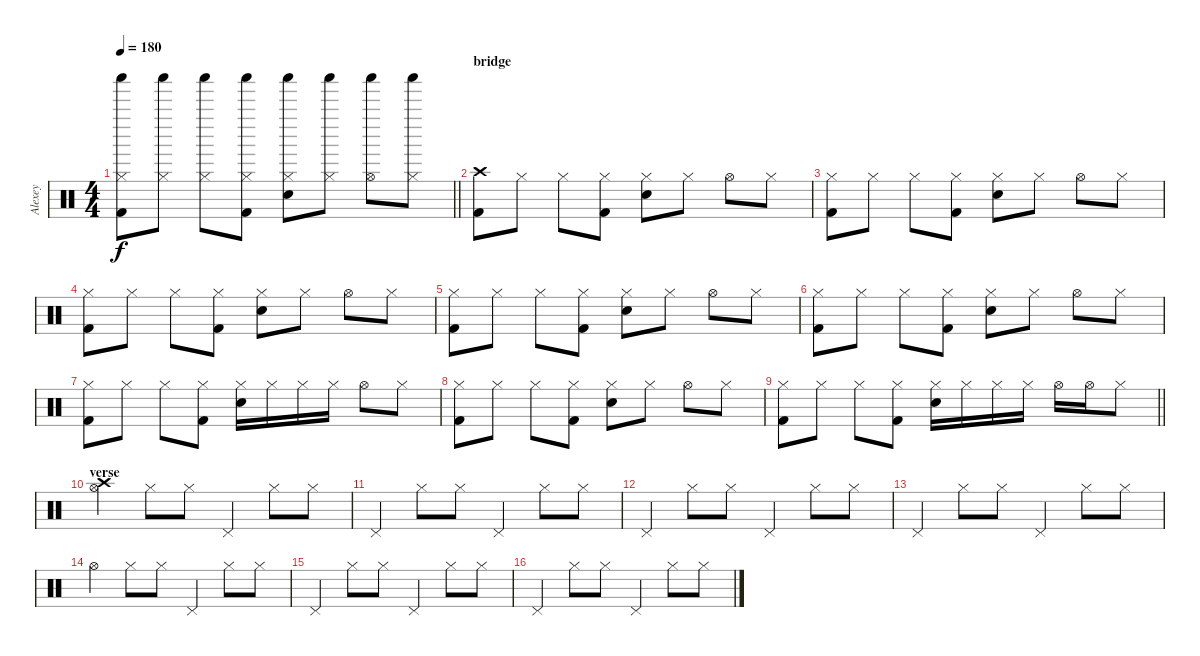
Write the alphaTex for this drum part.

\track ("Alexey" "Alexey") {instrument percussion}
\staff {score}
\articulation defaults
\ts (4 4)
\tempo 180
\clef neutral
\barLineRight lightlight
\ks c
("Hi-Hat (closed)" "Shaker (hit)" "Kick (hit) 2").8{dy f} ("Hi-Hat (closed)" "Shaker (hit)").8 ("Hi-Hat (closed)" "Shaker (hit)").8 ("Hi-Hat (closed)" "Shaker (hit)" "Kick (hit) 2").8 ("Hi-Hat (closed)" "Shaker (hit)" "Snare (hit) 2").8 ("Hi-Hat (closed)" "Shaker (hit)").8 ("Hi-Hat (open)" "Shaker (hit)").8 ("Hi-Hat (closed)" "Shaker (hit)").8 |
\section ("" "bridge")
("Crash high (hit)" "Kick (hit) 2").8 "Hi-Hat (closed)".8 "Hi-Hat (closed)".8 ("Hi-Hat (closed)" "Kick (hit) 2").8 ("Hi-Hat (closed)" "Snare (hit) 2").8 "Hi-Hat (closed)".8 "Hi-Hat (open)".8 "Hi-Hat (closed)".8 |
("Hi-Hat (closed)" "Kick (hit) 2").8 "Hi-Hat (closed)".8 "Hi-Hat (closed)".8 ("Hi-Hat (closed)" "Kick (hit) 2").8 ("Hi-Hat (closed)" "Snare (hit) 2").8 "Hi-Hat (closed)".8 "Hi-Hat (open)".8 "Hi-Hat (closed)".8 |
("Hi-Hat (closed)" "Kick (hit) 2").8 "Hi-Hat (closed)".8 "Hi-Hat (closed)".8 ("Hi-Hat (closed)" "Kick (hit) 2").8 ("Hi-Hat (closed)" "Snare (hit) 2").8 "Hi-Hat (closed)".8 "Hi-Hat (open)".8 "Hi-Hat (closed)".8 |
("Hi-Hat (closed)" "Kick (hit) 2").8 "Hi-Hat (closed)".8 "Hi-Hat (closed)".8 ("Hi-Hat (closed)" "Kick (hit) 2").8 ("Hi-Hat (closed)" "Snare (hit) 2").8 "Hi-Hat (closed)".8 "Hi-Hat (open)".8 "Hi-Hat (closed)".8 |
("Hi-Hat (closed)" "Kick (hit) 2").8 "Hi-Hat (closed)".8 "Hi-Hat (closed)".8 ("Hi-Hat (closed)" "Kick (hit) 2").8 ("Hi-Hat (closed)" "Snare (hit) 2").8 "Hi-Hat (closed)".8 "Hi-Hat (open)".8 "Hi-Hat (closed)".8 |
("Hi-Hat (closed)" "Kick (hit) 2").8 "Hi-Hat (closed)".8 "Hi-Hat (closed)".8 ("Hi-Hat (closed)" "Kick (hit) 2").8 ("Hi-Hat (closed)" "Snare (hit) 2").16 "Hi-Hat (closed)".16 "Hi-Hat (closed)".16 "Hi-Hat (closed)".16 "Hi-Hat (open)".8 "Hi-Hat (closed)".8 |
("Hi-Hat (closed)" "Kick (hit) 2").8 "Hi-Hat (closed)".8 "Hi-Hat (closed)".8 ("Hi-Hat (closed)" "Kick (hit) 2").8 ("Hi-Hat (closed)" "Snare (hit) 2").8 "Hi-Hat (closed)".8 "Hi-Hat (open)".8 "Hi-Hat (closed)".8 |
\barLineRight lightlight
("Hi-Hat (closed)" "Kick (hit) 2").8 "Hi-Hat (closed)".8 "Hi-Hat (closed)".8 ("Hi-Hat (closed)" "Kick (hit) 2").8 ("Hi-Hat (closed)" "Snare (hit) 2").16 "Hi-Hat (closed)".16 "Hi-Hat (closed)".16 "Hi-Hat (closed)".16 "Hi-Hat (open)".16 "Hi-Hat (open)".16 "Hi-Hat (closed)".8 |
\section ("" "verse")
("Hi-Hat (open)" "Crash high (hit)").4 "Hi-Hat (closed)".8 "Hi-Hat (closed)".8 "Pedal Hi-Hat (hit)".4 "Hi-Hat (closed)".8 "Hi-Hat (closed)".8 |
"Pedal Hi-Hat (hit)".4 "Hi-Hat (closed)".8 "Hi-Hat (closed)".8 "Pedal Hi-Hat (hit)".4 "Hi-Hat (closed)".8 "Hi-Hat (closed)".8 |
"Pedal Hi-Hat (hit)".4 "Hi-Hat (closed)".8 "Hi-Hat (closed)".8 "Pedal Hi-Hat (hit)".4 "Hi-Hat (closed)".8 "Hi-Hat (closed)".8 |
"Pedal Hi-Hat (hit)".4 "Hi-Hat (closed)".8 "Hi-Hat (closed)".8 "Pedal Hi-Hat (hit)".4 "Hi-Hat (closed)".8 "Hi-Hat (closed)".8 |
"Hi-Hat (open)".4 "Hi-Hat (closed)".8 "Hi-Hat (closed)".8 "Pedal Hi-Hat (hit)".4 "Hi-Hat (closed)".8 "Hi-Hat (closed)".8 |
"Pedal Hi-Hat (hit)".4 "Hi-Hat (closed)".8 "Hi-Hat (closed)".8 "Pedal Hi-Hat (hit)".4 "Hi-Hat (closed)".8 "Hi-Hat (closed)".8 |
"Pedal Hi-Hat (hit)".4 "Hi-Hat (closed)".8 "Hi-Hat (closed)".8 "Pedal Hi-Hat (hit)".4 "Hi-Hat (closed)".8 "Hi-Hat (closed)".8
